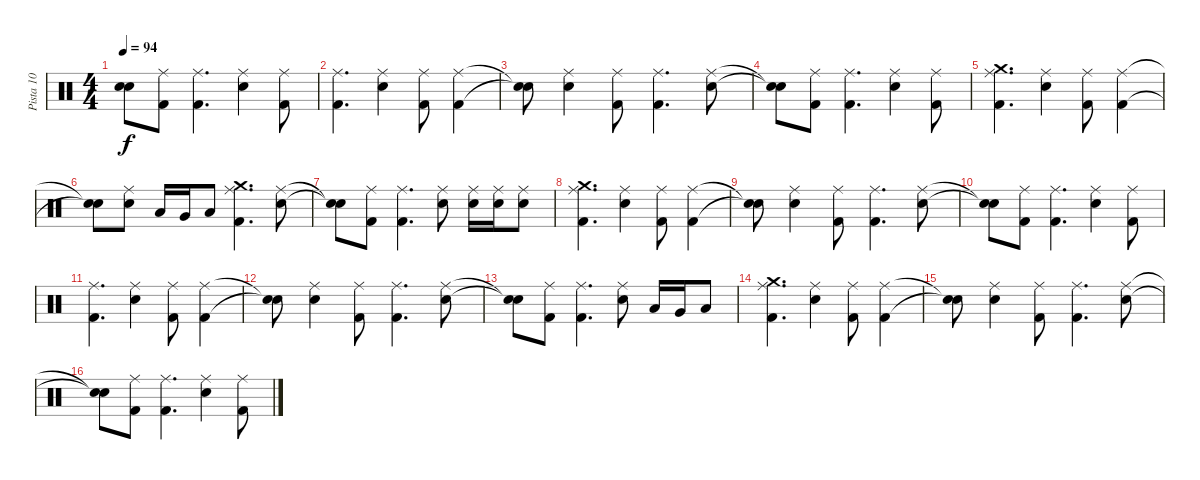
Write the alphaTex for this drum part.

\track ("Pista 10" "Pista 10") {instrument percussion}
\staff {score}
\articulation defaults
\ts (4 4)
\tempo 94
\clef neutral
\ks c
("Snare (hit)"{t} "Snare (hit)"{t}).8{dy f} ("Ride (middle)" "Kick (hit) 2").8 ("Ride (middle)" "Kick (hit) 2").4{d} ("Ride (middle)" "Snare (hit) 2").4 ("Ride (middle)" "Kick (hit) 2").8 |
("Ride (middle)" "Kick (hit) 2").4{d} ("Ride (middle)" "Snare (hit) 2").4 ("Ride (middle)" "Kick (hit) 2").8 ("Ride (middle)" "Kick (hit) 2").4 |
("Snare (hit)"{t} "Snare (hit)"{t}).8 ("Ride (middle)" "Snare (hit) 2").4 ("Ride (middle)" "Kick (hit) 2").8 ("Ride (middle)" "Kick (hit) 2").4{d} ("Ride (middle)" "Snare (hit) 2").8 |
("Snare (hit)"{t} "Snare (hit)"{t}).8 ("Ride (middle)" "Kick (hit) 2").8 ("Ride (middle)" "Kick (hit) 2").4{d} ("Ride (middle)" "Snare (hit) 2").4 ("Ride (middle)" "Kick (hit) 2").8 |
("Crash medium (hit)" "Ride (middle)" "Kick (hit) 2").4{d} ("Ride (middle)" "Snare (hit) 2").4 ("Ride (middle)" "Kick (hit) 2").8 ("Ride (middle)" "Kick (hit) 2").4 |
("Snare (hit)"{t} "Snare (hit)"{t}).8 ("Ride (middle)" "Snare (hit) 2").8 "Low Tom (hit)".16 "Very Low Tom (hit)".16 "Low Floor Tom (hit)".8 ("Crash medium (hit)" "Ride (middle)" "Kick (hit) 2").4{d} ("Ride (middle)" "Snare (hit) 2").8 |
("Snare (hit)"{t} "Snare (hit)"{t}).8 ("Ride (middle)" "Kick (hit) 2").8 ("Ride (middle)" "Kick (hit) 2").4{d} ("Ride (middle)" "Snare (hit) 2").8 ("Ride (middle)" "Snare (hit) 2").16 ("Ride (middle)" "Snare (hit) 2").16 ("Ride (middle)" "Snare (hit) 2").8 |
("Crash medium (hit)" "Ride (middle)" "Kick (hit) 2").4{d} ("Ride (middle)" "Snare (hit) 2").4 ("Ride (middle)" "Kick (hit) 2").8 ("Ride (middle)" "Kick (hit) 2").4 |
("Snare (hit)"{t} "Snare (hit)"{t}).8 ("Ride (middle)" "Snare (hit) 2").4 ("Ride (middle)" "Kick (hit) 2").8 ("Ride (middle)" "Kick (hit) 2").4{d} ("Ride (middle)" "Snare (hit) 2").8 |
("Snare (hit)"{t} "Snare (hit)"{t}).8 ("Ride (middle)" "Kick (hit) 2").8 ("Ride (middle)" "Kick (hit) 2").4{d} ("Ride (middle)" "Snare (hit) 2").4 ("Ride (middle)" "Kick (hit) 2").8 |
("Ride (middle)" "Kick (hit) 2").4{d} ("Ride (middle)" "Snare (hit) 2").4 ("Ride (middle)" "Kick (hit) 2").8 ("Ride (middle)" "Kick (hit) 2").4 |
("Snare (hit)"{t} "Snare (hit)"{t}).8 ("Ride (middle)" "Snare (hit) 2").4 ("Ride (middle)" "Kick (hit) 2").8 ("Ride (middle)" "Kick (hit) 2").4{d} ("Ride (middle)" "Snare (hit) 2").8 |
("Snare (hit)"{t} "Snare (hit)"{t}).8 ("Ride (middle)" "Kick (hit) 2").8 ("Ride (middle)" "Kick (hit) 2").4{d} ("Ride (middle)" "Snare (hit) 2").8 "Low Tom (hit)".16 "Very Low Tom (hit)".16 "Low Floor Tom (hit)".8 |
("Crash medium (hit)" "Ride (middle)" "Kick (hit) 2").4{d} ("Ride (middle)" "Snare (hit) 2").4 ("Ride (middle)" "Kick (hit) 2").8 ("Ride (middle)" "Kick (hit) 2").4 |
("Snare (hit)"{t} "Snare (hit)"{t}).8 ("Ride (middle)" "Snare (hit) 2").4 ("Ride (middle)" "Kick (hit) 2").8 ("Ride (middle)" "Kick (hit) 2").4{d} ("Ride (middle)" "Snare (hit) 2").8 |
("Snare (hit)"{t} "Snare (hit)"{t}).8 ("Ride (middle)" "Kick (hit) 2").8 ("Ride (middle)" "Kick (hit) 2").4{d} ("Ride (middle)" "Snare (hit) 2").4 ("Ride (middle)" "Kick (hit) 2").8
